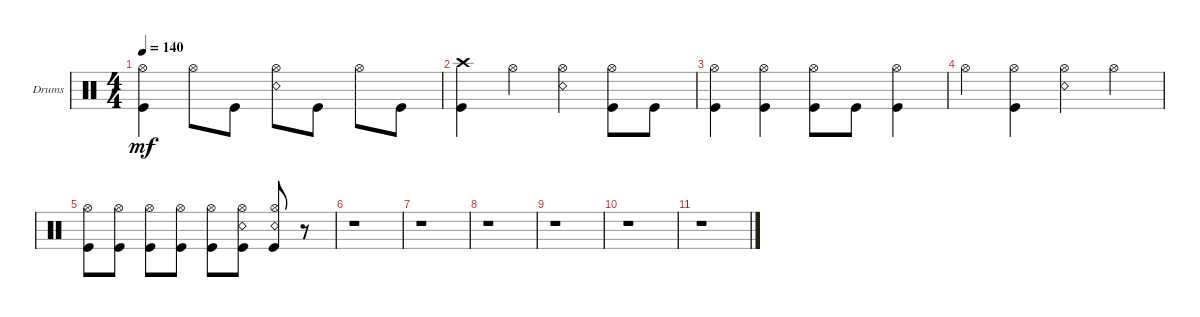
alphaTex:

\bracketExtendMode groupsimilarinstruments
\firstSystemTrackNameOrientation horizontal
\otherSystemsTrackNameOrientation horizontal
\track ("Drumkit" "Drums") {instrument percussion}
\staff {score}
\articulation defaults
\ts (4 4)
\tempo 140
\clef neutral
\ks c
("Kick (hit)" "Hi-Hat (open)").4{dy mf} "Hi-Hat (open)".8 "Kick (hit)".8 ("Snare (rim shot)" "Hi-Hat (open)").8 "Kick (hit)".8 "Hi-Hat (open)".8 "Kick (hit)".8 |
("Kick (hit)" "Crash high (hit)").4 "Hi-Hat (open)".4 ("Snare (rim shot)" "Hi-Hat (open)").4 ("Hi-Hat (open)" "Kick (hit)").8 "Kick (hit)".8 |
("Kick (hit)" "Hi-Hat (open)").4 ("Kick (hit)" "Hi-Hat (open)").4 ("Kick (hit)" "Hi-Hat (open)").8 "Kick (hit)".8 ("Kick (hit)" "Hi-Hat (open)").4 |
"Hi-Hat (open)".4 ("Hi-Hat (open)" "Kick (hit)").4 ("Hi-Hat (open)" "Snare (rim shot)").4 "Hi-Hat (open)".4 |
("Kick (hit)" "Hi-Hat (open)").8 ("Kick (hit)" "Hi-Hat (open)").8 ("Kick (hit)" "Hi-Hat (open)").8 ("Kick (hit)" "Hi-Hat (open)").8 ("Kick (hit)" "Hi-Hat (open)").8 ("Kick (hit)" "Snare (rim shot)" "Hi-Hat (open)").8 ("Kick (hit)" "Snare (rim shot)" "Hi-Hat (open)").8 r.8 |
r.1 |
r.1 |
r.1 |
r.1 |
r.1 |
r.1
